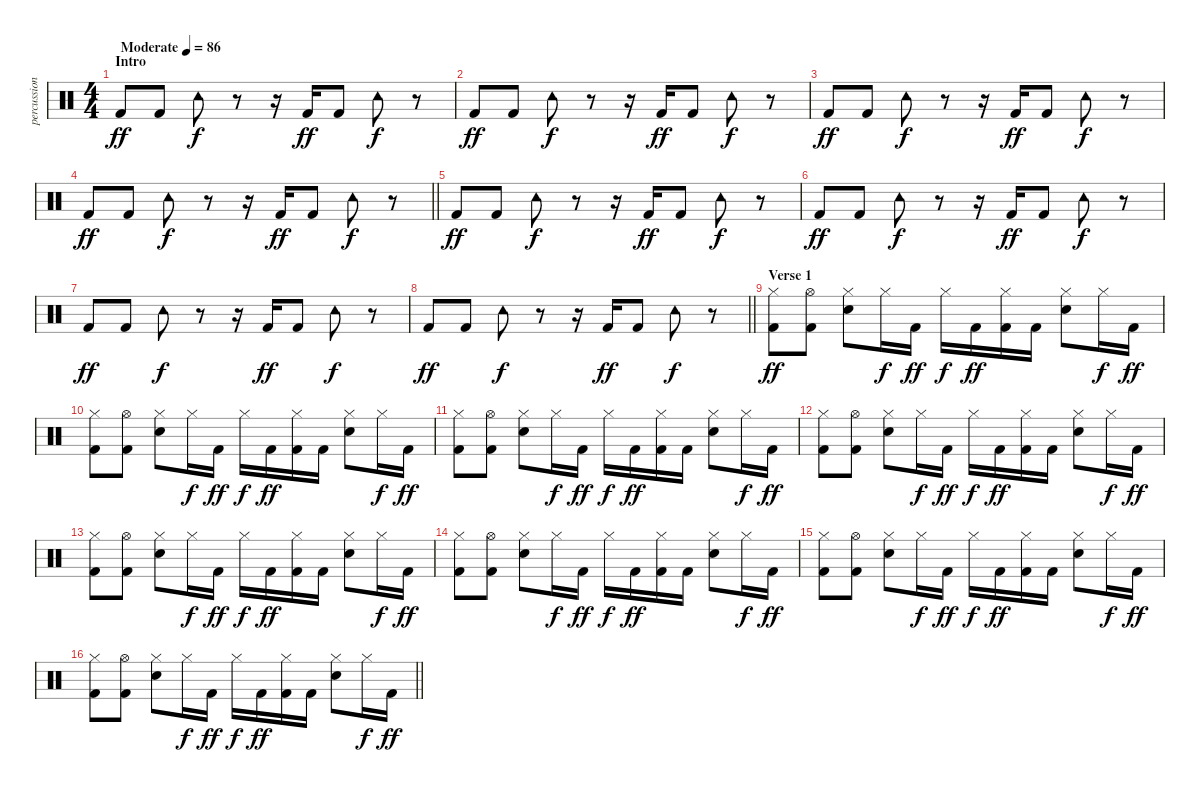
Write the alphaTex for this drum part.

\track ("percussion" "percussion") {instrument percussion}
\staff {score}
\articulation defaults
\ts (4 4)
\section ("" "Intro")
\tempo (86 "Moderate")
\clef neutral
\ks c "Kick (hit) 2".8{dy ff} "Kick (hit) 2".8 "Tambourine (hit)".8{dy f}
r.8 r.16 "Kick (hit) 2".16{dy ff} "Kick (hit) 2".8 "Tambourine (hit)".8{dy f} r.8 |
"Kick (hit) 2".8{dy ff} "Kick (hit) 2".8 "Tambourine (hit)".8{dy f} r.8 r.16 "Kick (hit) 2".16{dy ff} "Kick (hit) 2".8 "Tambourine (hit)".8{dy f} r.8 |
"Kick (hit) 2".8{dy ff} "Kick (hit) 2".8 "Tambourine (hit)".8{dy f} r.8 r.16 "Kick (hit) 2".16{dy ff} "Kick (hit) 2".8 "Tambourine (hit)".8{dy f} r.8 |
\barLineRight lightlight "Kick (hit) 2".8{dy ff} "Kick (hit) 2".8 "Tambourine (hit)".8{dy f}
r.8 r.16 "Kick (hit) 2".16{dy ff} "Kick (hit) 2".8 "Tambourine (hit)".8{dy f} r.8 |
"Kick (hit) 2".8{dy ff} "Kick (hit) 2".8 "Tambourine (hit)".8{dy f} r.8 r.16 "Kick (hit) 2".16{dy ff} "Kick (hit) 2".8 "Tambourine (hit)".8{dy f} r.8 |
"Kick (hit) 2".8{dy ff} "Kick (hit) 2".8 "Tambourine (hit)".8{dy f} r.8 r.16 "Kick (hit) 2".16{dy ff} "Kick (hit) 2".8 "Tambourine (hit)".8{dy f} r.8 |
"Kick (hit) 2".8{dy ff} "Kick (hit) 2".8 "Tambourine (hit)".8{dy f} r.8 r.16 "Kick (hit) 2".16{dy ff} "Kick (hit) 2".8 "Tambourine (hit)".8{dy f} r.8 |
\barLineRight lightlight "Kick (hit) 2".8{dy ff} "Kick (hit) 2".8 "Tambourine (hit)".8{dy f}
r.8 r.16 "Kick (hit) 2".16{dy ff} "Kick (hit) 2".8 "Tambourine (hit)".8{dy f} r.8 |
\section ("" "Verse 1")
("Hi-Hat (closed)" "Kick (hit) 2").8{dy ff} ("Hi-Hat (open)" "Kick (hit) 2").8 ("Electric Snare (hit)" "Hi-Hat (closed)").8 "Hi-Hat (closed)".16{dy f} "Kick (hit) 2".16{dy ff} "Hi-Hat (closed)".16{dy f} "Kick (hit) 2".16{dy ff} ("Hi-Hat (closed)" "Kick (hit) 2").16 "Kick (hit) 2".16 ("Electric Snare (hit)" "Hi-Hat (closed)").8 "Hi-Hat (closed)".16{dy f} "Kick (hit) 2".16{dy ff} |
("Hi-Hat (closed)" "Kick (hit) 2").8 ("Hi-Hat (open)" "Kick (hit) 2").8 ("Electric Snare (hit)" "Hi-Hat (closed)").8 "Hi-Hat (closed)".16{dy f} "Kick (hit) 2".16{dy ff} "Hi-Hat (closed)".16{dy f} "Kick (hit) 2".16{dy ff} ("Hi-Hat (closed)" "Kick (hit) 2").16 "Kick (hit) 2".16 ("Electric Snare (hit)" "Hi-Hat (closed)").8 "Hi-Hat (closed)".16{dy f} "Kick (hit) 2".16{dy ff} |
("Hi-Hat (closed)" "Kick (hit) 2").8 ("Hi-Hat (open)" "Kick (hit) 2").8 ("Electric Snare (hit)" "Hi-Hat (closed)").8 "Hi-Hat (closed)".16{dy f} "Kick (hit) 2".16{dy ff} "Hi-Hat (closed)".16{dy f} "Kick (hit) 2".16{dy ff} ("Hi-Hat (closed)" "Kick (hit) 2").16 "Kick (hit) 2".16 ("Electric Snare (hit)" "Hi-Hat (closed)").8 "Hi-Hat (closed)".16{dy f} "Kick (hit) 2".16{dy ff} |
("Hi-Hat (closed)" "Kick (hit) 2").8 ("Hi-Hat (open)" "Kick (hit) 2").8 ("Electric Snare (hit)" "Hi-Hat (closed)").8 "Hi-Hat (closed)".16{dy f} "Kick (hit) 2".16{dy ff} "Hi-Hat (closed)".16{dy f} "Kick (hit) 2".16{dy ff} ("Hi-Hat (closed)" "Kick (hit) 2").16 "Kick (hit) 2".16 ("Electric Snare (hit)" "Hi-Hat (closed)").8 "Hi-Hat (closed)".16{dy f} "Kick (hit) 2".16{dy ff} |
("Hi-Hat (closed)" "Kick (hit) 2").8 ("Hi-Hat (open)" "Kick (hit) 2").8 ("Electric Snare (hit)" "Hi-Hat (closed)").8 "Hi-Hat (closed)".16{dy f} "Kick (hit) 2".16{dy ff} "Hi-Hat (closed)".16{dy f} "Kick (hit) 2".16{dy ff} ("Hi-Hat (closed)" "Kick (hit) 2").16 "Kick (hit) 2".16 ("Electric Snare (hit)" "Hi-Hat (closed)").8 "Hi-Hat (closed)".16{dy f} "Kick (hit) 2".16{dy ff} |
("Hi-Hat (closed)" "Kick (hit) 2").8 ("Hi-Hat (open)" "Kick (hit) 2").8 ("Electric Snare (hit)" "Hi-Hat (closed)").8 "Hi-Hat (closed)".16{dy f} "Kick (hit) 2".16{dy ff} "Hi-Hat (closed)".16{dy f} "Kick (hit) 2".16{dy ff} ("Hi-Hat (closed)" "Kick (hit) 2").16 "Kick (hit) 2".16 ("Electric Snare (hit)" "Hi-Hat (closed)").8 "Hi-Hat (closed)".16{dy f} "Kick (hit) 2".16{dy ff} |
("Hi-Hat (closed)" "Kick (hit) 2").8 ("Hi-Hat (open)" "Kick (hit) 2").8 ("Electric Snare (hit)" "Hi-Hat (closed)").8 "Hi-Hat (closed)".16{dy f} "Kick (hit) 2".16{dy ff} "Hi-Hat (closed)".16{dy f} "Kick (hit) 2".16{dy ff} ("Hi-Hat (closed)" "Kick (hit) 2").16 "Kick (hit) 2".16 ("Electric Snare (hit)" "Hi-Hat (closed)").8 "Hi-Hat (closed)".16{dy f} "Kick (hit) 2".16{dy ff} |
\barLineRight lightlight
("Hi-Hat (closed)" "Kick (hit) 2").8 ("Hi-Hat (open)" "Kick (hit) 2").8 ("Electric Snare (hit)" "Hi-Hat (closed)").8 "Hi-Hat (closed)".16{dy f} "Kick (hit) 2".16{dy ff} "Hi-Hat (closed)".16{dy f} "Kick (hit) 2".16{dy ff} ("Hi-Hat (closed)" "Kick (hit) 2").16 "Kick (hit) 2".16 ("Electric Snare (hit)" "Hi-Hat (closed)").8 "Hi-Hat (closed)".16{dy f} "Kick (hit) 2".16{dy ff}
